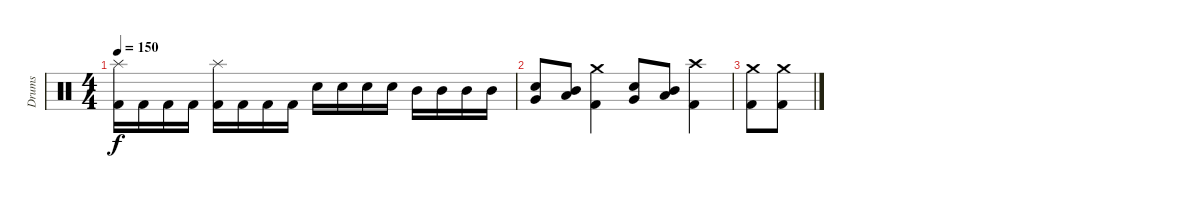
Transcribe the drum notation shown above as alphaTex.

\track ("Drums" "Drums") {instrument percussion}
\staff {score}
\articulation defaults
\ts (4 4)
\tempo 150
\clef neutral
\ks c
("Splash (hit)" "Kick (hit) 2").16{dy f} "Kick (hit) 2".16 "Kick (hit) 2".16 "Kick (hit) 2".16 ("Splash (hit)" "Kick (hit) 2").16 "Kick (hit) 2".16 "Kick (hit) 2".16 "Kick (hit) 2".16 "Electric Snare (hit)".16 "Electric Snare (hit)".16 "Electric Snare (hit)".16 "Electric Snare (hit)".16 "Mid Tom (hit)".16 "Mid Tom (hit)".16 "Mid Tom (hit)".16 "Mid Tom (hit)".16 |
("Electric Snare (hit)" "Very Low Tom (hit)").8 ("Mid Tom (hit)" "Low Tom (hit)").8 ("Crash medium (hit)" "Kick (hit) 2").4 ("Electric Snare (hit)" "Very Low Tom (hit)").8 ("Mid Tom (hit)" "Low Tom (hit)").8 ("Crash high (hit)" "Kick (hit) 2").4 |
("Crash medium (hit)" "Kick (hit) 2").8 ("Crash medium (hit)" "Kick (hit) 2").8
